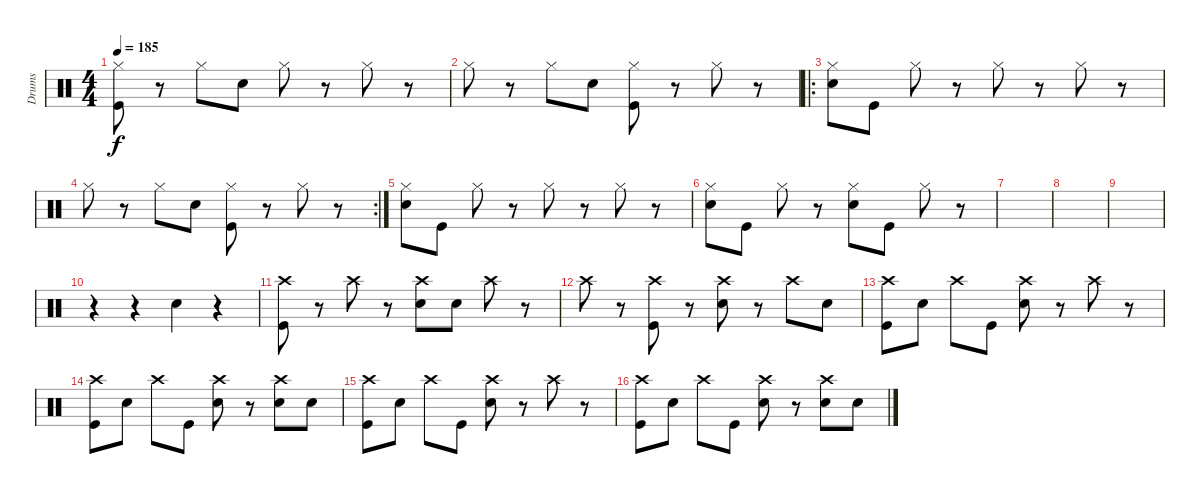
\track ("Drums" "Drums") {instrument percussion}
\staff {score}
\articulation defaults
\ts (4 4)
\tempo 185
\clef neutral
\ks c
("Hi-Hat (closed)" "Kick (hit)").8{dy f} r.8 "Hi-Hat (closed)".8 "Snare (hit) 2".8 "Hi-Hat (closed)".8 r.8 "Hi-Hat (closed)".8 r.8 |
"Hi-Hat (closed)".8 r.8 "Hi-Hat (closed)".8 "Snare (hit) 2".8 ("Hi-Hat (closed)" "Kick (hit)").8 r.8 "Hi-Hat (closed)".8 r.8 |
\ro
("Hi-Hat (closed)" "Snare (hit) 2").8 "Kick (hit)".8 "Hi-Hat (closed)".8 r.8 "Hi-Hat (closed)".8 r.8 "Hi-Hat (closed)".8 r.8 |
\rc 2 "Hi-Hat (closed)".8
r.8 "Hi-Hat (closed)".8 "Snare (hit) 2".8 ("Hi-Hat (closed)" "Kick (hit)").8 r.8 "Hi-Hat (closed)".8 r.8 |
("Hi-Hat (closed)" "Snare (hit) 2").8 "Kick (hit)".8 "Hi-Hat (closed)".8 r.8 "Hi-Hat (closed)".8 r.8 "Hi-Hat (closed)".8 r.8 |
("Hi-Hat (closed)" "Snare (hit) 2").8 "Kick (hit)".8 "Hi-Hat (closed)".8 r.8 ("Hi-Hat (closed)" "Snare (hit) 2").8 "Kick (hit)".8 "Hi-Hat (closed)".8 r.8 |
|
|
|
r.4 r.4 "Snare (hit) 2".4 r.4 |
("Crash high (hit)" "Kick (hit)").8 r.8 "Crash high (hit)".8 r.8 ("Crash high (hit)" "Snare (hit) 2").8 "Snare (hit) 2".8 "Crash high (hit)".8 r.8 |
"Crash high (hit)".8 r.8 ("Crash high (hit)" "Kick (hit)").8 r.8 ("Crash high (hit)" "Snare (hit) 2").8 r.8 "Crash high (hit)".8 "Snare (hit) 2".8 |
("Crash high (hit)" "Kick (hit)").8 "Snare (hit) 2".8 "Crash high (hit)".8 "Kick (hit)".8 ("Crash high (hit)" "Snare (hit) 2").8 r.8 "Crash high (hit)".8 r.8 |
("Crash high (hit)" "Kick (hit)").8 "Snare (hit) 2".8 "Crash high (hit)".8 "Kick (hit)".8 ("Crash high (hit)" "Snare (hit) 2").8 r.8 ("Crash high (hit)" "Snare (hit) 2").8 "Snare (hit) 2".8 |
("Crash high (hit)" "Kick (hit)").8 "Snare (hit) 2".8 "Crash high (hit)".8 "Kick (hit)".8 ("Crash high (hit)" "Snare (hit) 2").8 r.8 "Crash high (hit)".8 r.8 |
("Crash high (hit)" "Kick (hit)").8 "Snare (hit) 2".8 "Crash high (hit)".8 "Kick (hit)".8 ("Crash high (hit)" "Snare (hit) 2").8 r.8 ("Crash high (hit)" "Snare (hit) 2").8 "Snare (hit) 2".8
